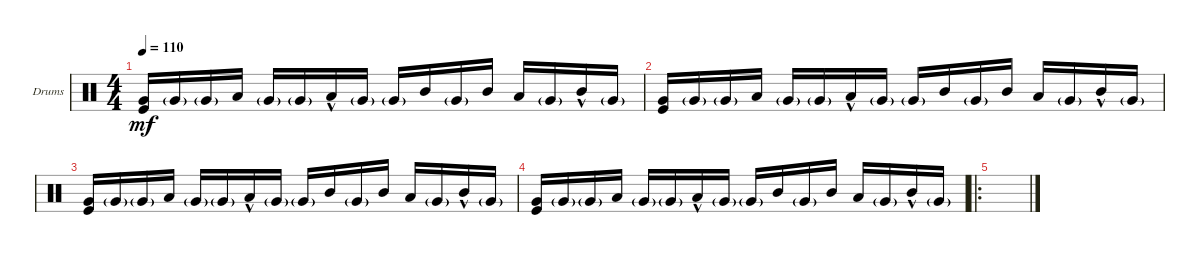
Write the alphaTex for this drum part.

\defaultSystemsLayout 4
\bracketExtendMode groupsimilarinstruments
\firstSystemTrackNameOrientation horizontal
\otherSystemsTrackNameOrientation horizontal
\track ("Drumkit" "Drums") {instrument percussion}
\staff {score}
\articulation defaults
\ts (4 4)
\tempo 110
\clef neutral
\scale
0.472222
\ks c
("Very Low Tom (hit)" "Kick (hit)").16{dy mf} "Very Low Tom (hit)"{g}.16 "Very Low Tom (hit)"{g}.16 "Low Tom (hit)".16 "Very Low Tom (hit)"{g}.16 "Very Low Tom (hit)"{g}.16 "Low Tom (hit)"{hac}.16 "Very Low Tom (hit)"{g}.16 "Very Low Tom (hit)"{g}.16 "Mid Tom (hit)".16 "Very Low Tom (hit)"{g}.16 "Mid Tom (hit)".16 "Low Tom (hit)".16 "Very Low Tom (hit)"{g}.16 "Mid Tom (hit)"{hac}.16 "Very Low Tom (hit)"{g}.16 |
\scale
0.263889 ("Very Low Tom (hit)" "Kick (hit)").16 "Very Low Tom (hit)"{g}.16 "Very Low Tom (hit)"{g}.16 "Low Tom (hit)".16 "Very Low Tom (hit)"{g}.16 "Very Low Tom (hit)"{g}.16 "Low Tom (hit)"{hac}.16 "Very Low Tom (hit)"{g}.16 "Very Low Tom (hit)"{g}.16 "Mid Tom (hit)".16 "Very Low Tom (hit)"{g}.16 "Mid Tom (hit)".16 "Low Tom (hit)".16 "Very Low Tom (hit)"{g}.16 "Mid Tom (hit)"{hac}.16 "Very Low Tom (hit)"{g}.16 |
\scale
0.263889 ("Very Low Tom (hit)" "Kick (hit)").16 "Very Low Tom (hit)"{g}.16 "Very Low Tom (hit)"{g}.16 "Low Tom (hit)".16 "Very Low Tom (hit)"{g}.16 "Very Low Tom (hit)"{g}.16 "Low Tom (hit)"{hac}.16 "Very Low Tom (hit)"{g}.16 "Very Low Tom (hit)"{g}.16 "Mid Tom (hit)".16 "Very Low Tom (hit)"{g}.16 "Mid Tom (hit)".16 "Low Tom (hit)".16 "Very Low Tom (hit)"{g}.16 "Mid Tom (hit)"{hac}.16 "Very Low Tom (hit)"{g}.16 |
\scale
0.311475 ("Very Low Tom (hit)" "Kick (hit)").16 "Very Low Tom (hit)"{g}.16 "Very Low Tom (hit)"{g}.16 "Low Tom (hit)".16 "Very Low Tom (hit)"{g}.16 "Very Low Tom (hit)"{g}.16 "Low Tom (hit)"{hac}.16 "Very Low Tom (hit)"{g}.16 "Very Low Tom (hit)"{g}.16 "Mid Tom (hit)".16 "Very Low Tom (hit)"{g}.16 "Mid Tom (hit)".16 "Low Tom (hit)".16 "Very Low Tom (hit)"{g}.16 "Mid Tom (hit)"{hac}.16 "Very Low Tom (hit)"{g}.16 |
\ro
\scale
0.377049 |
\scale
0.311475 |
\scale
0.333333 |
\scale
0.333333 |
\scale
0.333333 |
\scale
0.333333 |
\scale
0.333333 |
\scale
0.333333 |
\scale
0.333333 |
\scale
0.333333 |
\scale
0.333333 |
\scale
0.322034
